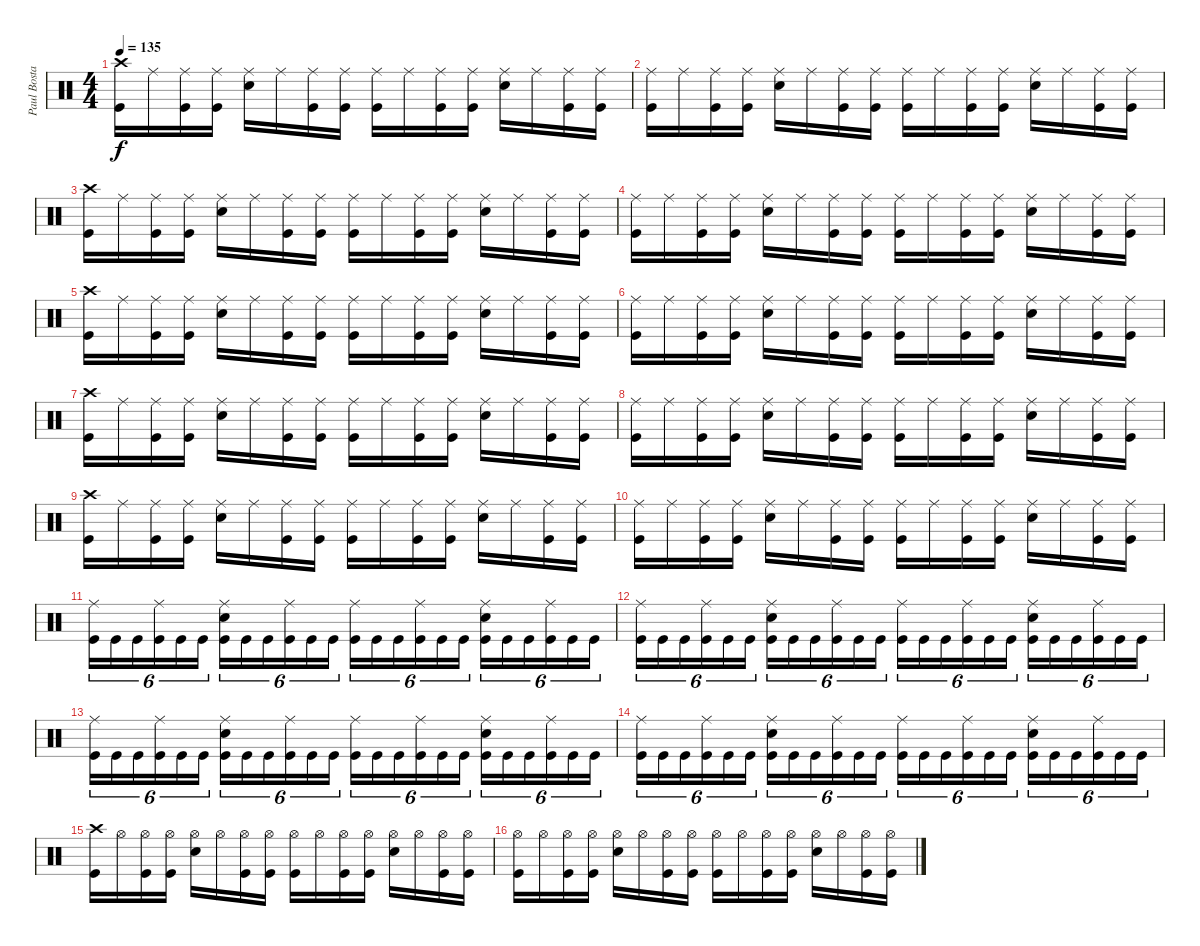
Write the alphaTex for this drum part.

\track ("Paul Bostaph" "Paul Bosta") {instrument percussion}
\staff {score}
\articulation defaults
\ts (4 4)
\tempo 135
\clef neutral
\ks c
("Kick (hit)" "Crash high (hit)").16{dy f} "Ride (middle)".16 ("Kick (hit)" "Ride (middle)").16 ("Kick (hit)" "Ride (middle)").16 ("Snare (hit) 2" "Ride (middle)").16 "Ride (middle)".16 ("Kick (hit)" "Ride (middle)").16 ("Kick (hit)" "Ride (middle)").16 ("Kick (hit)" "Ride (middle)").16 "Ride (middle)".16 ("Kick (hit)" "Ride (middle)").16 ("Kick (hit)" "Ride (middle)").16 ("Snare (hit) 2" "Ride (middle)").16 "Ride (middle)".16 ("Kick (hit)" "Ride (middle)").16 ("Kick (hit)" "Ride (middle)").16 |
("Kick (hit)" "Ride (middle)").16 "Ride (middle)".16 ("Kick (hit)" "Ride (middle)").16 ("Kick (hit)" "Ride (middle)").16 ("Snare (hit) 2" "Ride (middle)").16 "Ride (middle)".16 ("Kick (hit)" "Ride (middle)").16 ("Kick (hit)" "Ride (middle)").16 ("Kick (hit)" "Ride (middle)").16 "Ride (middle)".16 ("Kick (hit)" "Ride (middle)").16 ("Kick (hit)" "Ride (middle)").16 ("Snare (hit) 2" "Ride (middle)").16 "Ride (middle)".16 ("Kick (hit)" "Ride (middle)").16 ("Kick (hit)" "Ride (middle)").16 |
("Kick (hit)" "Crash high (hit)").16 "Ride (middle)".16 ("Kick (hit)" "Ride (middle)").16 ("Kick (hit)" "Ride (middle)").16 ("Snare (hit) 2" "Ride (middle)").16 "Ride (middle)".16 ("Kick (hit)" "Ride (middle)").16 ("Kick (hit)" "Ride (middle)").16 ("Kick (hit)" "Ride (middle)").16 "Ride (middle)".16 ("Kick (hit)" "Ride (middle)").16 ("Kick (hit)" "Ride (middle)").16 ("Snare (hit) 2" "Ride (middle)").16 "Ride (middle)".16 ("Kick (hit)" "Ride (middle)").16 ("Kick (hit)" "Ride (middle)").16 |
("Kick (hit)" "Ride (middle)").16 "Ride (middle)".16 ("Kick (hit)" "Ride (middle)").16 ("Kick (hit)" "Ride (middle)").16 ("Snare (hit) 2" "Ride (middle)").16 "Ride (middle)".16 ("Kick (hit)" "Ride (middle)").16 ("Kick (hit)" "Ride (middle)").16 ("Kick (hit)" "Ride (middle)").16 "Ride (middle)".16 ("Kick (hit)" "Ride (middle)").16 ("Kick (hit)" "Ride (middle)").16 ("Snare (hit) 2" "Ride (middle)").16 "Ride (middle)".16 ("Kick (hit)" "Ride (middle)").16 ("Kick (hit)" "Ride (middle)").16 |
("Kick (hit)" "Crash high (hit)").16 "Ride (middle)".16 ("Kick (hit)" "Ride (middle)").16 ("Kick (hit)" "Ride (middle)").16 ("Snare (hit) 2" "Ride (middle)").16 "Ride (middle)".16 ("Kick (hit)" "Ride (middle)").16 ("Kick (hit)" "Ride (middle)").16 ("Kick (hit)" "Ride (middle)").16 "Ride (middle)".16 ("Kick (hit)" "Ride (middle)").16 ("Kick (hit)" "Ride (middle)").16 ("Snare (hit) 2" "Ride (middle)").16 "Ride (middle)".16 ("Kick (hit)" "Ride (middle)").16 ("Kick (hit)" "Ride (middle)").16 |
("Kick (hit)" "Ride (middle)").16 "Ride (middle)".16 ("Kick (hit)" "Ride (middle)").16 ("Kick (hit)" "Ride (middle)").16 ("Snare (hit) 2" "Ride (middle)").16 "Ride (middle)".16 ("Kick (hit)" "Ride (middle)").16 ("Kick (hit)" "Ride (middle)").16 ("Kick (hit)" "Ride (middle)").16 "Ride (middle)".16 ("Kick (hit)" "Ride (middle)").16 ("Kick (hit)" "Ride (middle)").16 ("Snare (hit) 2" "Ride (middle)").16 "Ride (middle)".16 ("Kick (hit)" "Ride (middle)").16 ("Kick (hit)" "Ride (middle)").16 |
("Kick (hit)" "Crash high (hit)").16 "Ride (middle)".16 ("Kick (hit)" "Ride (middle)").16 ("Kick (hit)" "Ride (middle)").16 ("Snare (hit) 2" "Ride (middle)").16 "Ride (middle)".16 ("Kick (hit)" "Ride (middle)").16 ("Kick (hit)" "Ride (middle)").16 ("Kick (hit)" "Ride (middle)").16 "Ride (middle)".16 ("Kick (hit)" "Ride (middle)").16 ("Kick (hit)" "Ride (middle)").16 ("Snare (hit) 2" "Ride (middle)").16 "Ride (middle)".16 ("Kick (hit)" "Ride (middle)").16 ("Kick (hit)" "Ride (middle)").16 |
("Kick (hit)" "Ride (middle)").16 "Ride (middle)".16 ("Kick (hit)" "Ride (middle)").16 ("Kick (hit)" "Ride (middle)").16 ("Snare (hit) 2" "Ride (middle)").16 "Ride (middle)".16 ("Kick (hit)" "Ride (middle)").16 ("Kick (hit)" "Ride (middle)").16 ("Kick (hit)" "Ride (middle)").16 "Ride (middle)".16 ("Kick (hit)" "Ride (middle)").16 ("Kick (hit)" "Ride (middle)").16 ("Snare (hit) 2" "Ride (middle)").16 "Ride (middle)".16 ("Kick (hit)" "Ride (middle)").16 ("Kick (hit)" "Ride (middle)").16 |
("Kick (hit)" "Crash high (hit)").16 "Ride (middle)".16 ("Kick (hit)" "Ride (middle)").16 ("Kick (hit)" "Ride (middle)").16 ("Snare (hit) 2" "Ride (middle)").16 "Ride (middle)".16 ("Kick (hit)" "Ride (middle)").16 ("Kick (hit)" "Ride (middle)").16 ("Kick (hit)" "Ride (middle)").16 "Ride (middle)".16 ("Kick (hit)" "Ride (middle)").16 ("Kick (hit)" "Ride (middle)").16 ("Snare (hit) 2" "Ride (middle)").16 "Ride (middle)".16 ("Kick (hit)" "Ride (middle)").16 ("Kick (hit)" "Ride (middle)").16 |
("Kick (hit)" "Ride (middle)").16 "Ride (middle)".16 ("Kick (hit)" "Ride (middle)").16 ("Kick (hit)" "Ride (middle)").16 ("Snare (hit) 2" "Ride (middle)").16 "Ride (middle)".16 ("Kick (hit)" "Ride (middle)").16 ("Kick (hit)" "Ride (middle)").16 ("Kick (hit)" "Ride (middle)").16 "Ride (middle)".16 ("Kick (hit)" "Ride (middle)").16 ("Kick (hit)" "Ride (middle)").16 ("Snare (hit) 2" "Ride (middle)").16 "Ride (middle)".16 ("Kick (hit)" "Ride (middle)").16 ("Kick (hit)" "Ride (middle)").16 |
("Ride (middle)" "Kick (hit)").16{tu (6 4)} "Kick (hit)".16{tu (6 4)} "Kick (hit)".16{tu (6 4)} ("Ride (middle)" "Kick (hit)").16{tu (6 4)} "Kick (hit)".16{tu (6 4)} "Kick (hit)".16{tu (6 4)} ("Ride (middle)" "Snare (hit) 2" "Kick (hit)").16{tu (6 4)} "Kick (hit)".16{tu (6 4)} "Kick (hit)".16{tu (6 4)} ("Ride (middle)" "Kick (hit)").16{tu (6 4)} "Kick (hit)".16{tu (6 4)} "Kick (hit)".16{tu (6 4)} ("Ride (middle)" "Kick (hit)").16{tu (6 4)} "Kick (hit)".16{tu (6 4)} "Kick (hit)".16{tu (6 4)} ("Ride (middle)" "Kick (hit)").16{tu (6 4)} "Kick (hit)".16{tu (6 4)} "Kick (hit)".16{tu (6 4)} ("Ride (middle)" "Snare (hit) 2" "Kick (hit)").16{tu (6 4)} "Kick (hit)".16{tu (6 4)} "Kick (hit)".16{tu (6 4)} ("Ride (middle)" "Kick (hit)").16{tu (6 4)} "Kick (hit)".16{tu (6 4)} "Kick (hit)".16{tu (6 4)} |
("Ride (middle)" "Kick (hit)").16{tu (6 4)} "Kick (hit)".16{tu (6 4)} "Kick (hit)".16{tu (6 4)} ("Ride (middle)" "Kick (hit)").16{tu (6 4)} "Kick (hit)".16{tu (6 4)} "Kick (hit)".16{tu (6 4)} ("Ride (middle)" "Snare (hit) 2" "Kick (hit)").16{tu (6 4)} "Kick (hit)".16{tu (6 4)} "Kick (hit)".16{tu (6 4)} ("Ride (middle)" "Kick (hit)").16{tu (6 4)} "Kick (hit)".16{tu (6 4)} "Kick (hit)".16{tu (6 4)} ("Ride (middle)" "Kick (hit)").16{tu (6 4)} "Kick (hit)".16{tu (6 4)} "Kick (hit)".16{tu (6 4)} ("Ride (middle)" "Kick (hit)").16{tu (6 4)} "Kick (hit)".16{tu (6 4)} "Kick (hit)".16{tu (6 4)} ("Ride (middle)" "Snare (hit) 2" "Kick (hit)").16{tu (6 4)} "Kick (hit)".16{tu (6 4)} "Kick (hit)".16{tu (6 4)} ("Ride (middle)" "Kick (hit)").16{tu (6 4)} "Kick (hit)".16{tu (6 4)} "Kick (hit)".16{tu (6 4)} |
("Ride (middle)" "Kick (hit)").16{tu (6 4)} "Kick (hit)".16{tu (6 4)} "Kick (hit)".16{tu (6 4)} ("Ride (middle)" "Kick (hit)").16{tu (6 4)} "Kick (hit)".16{tu (6 4)} "Kick (hit)".16{tu (6 4)} ("Ride (middle)" "Snare (hit) 2" "Kick (hit)").16{tu (6 4)} "Kick (hit)".16{tu (6 4)} "Kick (hit)".16{tu (6 4)} ("Ride (middle)" "Kick (hit)").16{tu (6 4)} "Kick (hit)".16{tu (6 4)} "Kick (hit)".16{tu (6 4)} ("Ride (middle)" "Kick (hit)").16{tu (6 4)} "Kick (hit)".16{tu (6 4)} "Kick (hit)".16{tu (6 4)} ("Ride (middle)" "Kick (hit)").16{tu (6 4)} "Kick (hit)".16{tu (6 4)} "Kick (hit)".16{tu (6 4)} ("Ride (middle)" "Snare (hit) 2" "Kick (hit)").16{tu (6 4)} "Kick (hit)".16{tu (6 4)} "Kick (hit)".16{tu (6 4)} ("Ride (middle)" "Kick (hit)").16{tu (6 4)} "Kick (hit)".16{tu (6 4)} "Kick (hit)".16{tu (6 4)} |
("Ride (middle)" "Kick (hit)").16{tu (6 4)} "Kick (hit)".16{tu (6 4)} "Kick (hit)".16{tu (6 4)} ("Ride (middle)" "Kick (hit)").16{tu (6 4)} "Kick (hit)".16{tu (6 4)} "Kick (hit)".16{tu (6 4)} ("Ride (middle)" "Snare (hit) 2" "Kick (hit)").16{tu (6 4)} "Kick (hit)".16{tu (6 4)} "Kick (hit)".16{tu (6 4)} ("Ride (middle)" "Kick (hit)").16{tu (6 4)} "Kick (hit)".16{tu (6 4)} "Kick (hit)".16{tu (6 4)} ("Ride (middle)" "Kick (hit)").16{tu (6 4)} "Kick (hit)".16{tu (6 4)} "Kick (hit)".16{tu (6 4)} ("Ride (middle)" "Kick (hit)").16{tu (6 4)} "Kick (hit)".16{tu (6 4)} "Kick (hit)".16{tu (6 4)} ("Ride (middle)" "Snare (hit) 2" "Kick (hit)").16{tu (6 4)} "Kick (hit)".16{tu (6 4)} "Kick (hit)".16{tu (6 4)} ("Ride (middle)" "Kick (hit)").16{tu (6 4)} "Kick (hit)".16{tu (6 4)} "Kick (hit)".16{tu (6 4)} |
("Kick (hit)" "Crash high (hit)").16 "Hi-Hat (open)".16 ("Kick (hit)" "Hi-Hat (open)").16 ("Kick (hit)" "Hi-Hat (open)").16 ("Snare (hit) 2" "Hi-Hat (open)").16 "Hi-Hat (open)".16 ("Kick (hit)" "Hi-Hat (open)").16 ("Kick (hit)" "Hi-Hat (open)").16 ("Kick (hit)" "Hi-Hat (open)").16 "Hi-Hat (open)".16 ("Kick (hit)" "Hi-Hat (open)").16 ("Kick (hit)" "Hi-Hat (open)").16 ("Snare (hit) 2" "Hi-Hat (open)").16 "Hi-Hat (open)".16 ("Kick (hit)" "Hi-Hat (open)").16 ("Kick (hit)" "Hi-Hat (open)").16 |
("Kick (hit)" "Hi-Hat (open)").16 "Hi-Hat (open)".16 ("Kick (hit)" "Hi-Hat (open)").16 ("Kick (hit)" "Hi-Hat (open)").16 ("Snare (hit) 2" "Hi-Hat (open)").16 "Hi-Hat (open)".16 ("Kick (hit)" "Hi-Hat (open)").16 ("Kick (hit)" "Hi-Hat (open)").16 ("Kick (hit)" "Hi-Hat (open)").16 "Hi-Hat (open)".16 ("Kick (hit)" "Hi-Hat (open)").16 ("Kick (hit)" "Hi-Hat (open)").16 ("Snare (hit) 2" "Hi-Hat (open)").16 "Hi-Hat (open)".16 ("Kick (hit)" "Hi-Hat (open)").16 ("Kick (hit)" "Hi-Hat (open)").16
